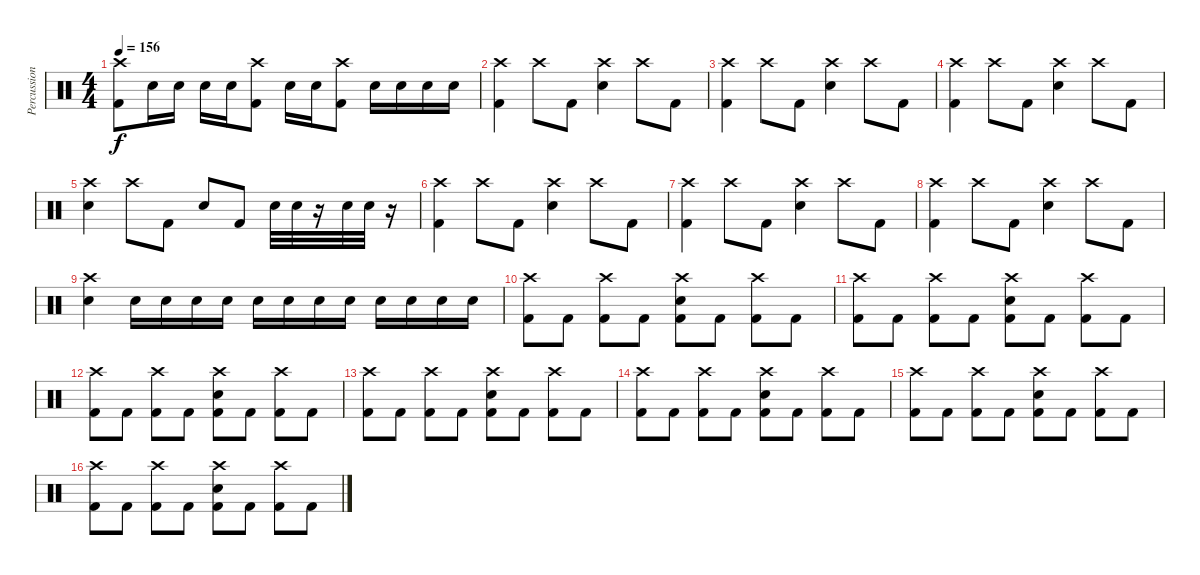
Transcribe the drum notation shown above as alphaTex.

\track ("Percussions" "Percussion") {instrument percussion}
\staff {score}
\articulation defaults
\ts (4 4)
\tempo 156
\clef neutral
\ks c
("Crash high (hit)" "Kick (hit) 2").8{dy f} "Electric Snare (hit)".16 "Electric Snare (hit)".16 "Electric Snare (hit)".16 "Electric Snare (hit)".16 ("Crash high (hit)" "Kick (hit) 2").8 "Electric Snare (hit)".16 "Electric Snare (hit)".16 ("Crash high (hit)" "Kick (hit) 2").8 "Electric Snare (hit)".16 "Electric Snare (hit)".16 "Electric Snare (hit)".16 "Electric Snare (hit)".16 |
("Crash high (hit)" "Kick (hit) 2").4 "Crash high (hit)".8 "Kick (hit) 2".8 ("Crash high (hit)" "Electric Snare (hit)").4 "Crash high (hit)".8 "Kick (hit) 2".8 |
("Crash high (hit)" "Kick (hit) 2").4 "Crash high (hit)".8 "Kick (hit) 2".8 ("Crash high (hit)" "Electric Snare (hit)").4 "Crash high (hit)".8 "Kick (hit) 2".8 |
("Crash high (hit)" "Kick (hit) 2").4 "Crash high (hit)".8 "Kick (hit) 2".8 ("Crash high (hit)" "Electric Snare (hit)").4 "Crash high (hit)".8 "Kick (hit) 2".8 |
("Crash high (hit)" "Electric Snare (hit)").4 "Crash high (hit)".8 "Kick (hit) 2".8 "Electric Snare (hit)".8 "Kick (hit) 2".8 "Electric Snare (hit)".32 "Electric Snare (hit)".32 r.16 "Electric Snare (hit)".32 "Electric Snare (hit)".32 r.16 |
("Crash high (hit)" "Kick (hit) 2").4 "Crash high (hit)".8 "Kick (hit) 2".8 ("Crash high (hit)" "Electric Snare (hit)").4 "Crash high (hit)".8 "Kick (hit) 2".8 |
("Crash high (hit)" "Kick (hit) 2").4 "Crash high (hit)".8 "Kick (hit) 2".8 ("Crash high (hit)" "Electric Snare (hit)").4 "Crash high (hit)".8 "Kick (hit) 2".8 |
("Crash high (hit)" "Kick (hit) 2").4 "Crash high (hit)".8 "Kick (hit) 2".8 ("Crash high (hit)" "Electric Snare (hit)").4 "Crash high (hit)".8 "Kick (hit) 2".8 |
("Crash high (hit)" "Electric Snare (hit)").4 "Electric Snare (hit)".16 "Electric Snare (hit)".16 "Electric Snare (hit)".16 "Electric Snare (hit)".16 "Electric Snare (hit)".16 "Electric Snare (hit)".16 "Electric Snare (hit)".16 "Electric Snare (hit)".16 "Electric Snare (hit)".16 "Electric Snare (hit)".16 "Electric Snare (hit)".16 "Electric Snare (hit)".16 |
("Crash high (hit)" "Kick (hit) 2").8 "Kick (hit) 2".8 ("Crash high (hit)" "Kick (hit) 2").8 "Kick (hit) 2".8 ("Crash high (hit)" "Electric Snare (hit)" "Kick (hit) 2").8 "Kick (hit) 2".8 ("Crash high (hit)" "Kick (hit) 2").8 "Kick (hit) 2".8 |
("Crash high (hit)" "Kick (hit) 2").8 "Kick (hit) 2".8 ("Crash high (hit)" "Kick (hit) 2").8 "Kick (hit) 2".8 ("Crash high (hit)" "Electric Snare (hit)" "Kick (hit) 2").8 "Kick (hit) 2".8 ("Crash high (hit)" "Kick (hit) 2").8 "Kick (hit) 2".8 |
("Crash high (hit)" "Kick (hit) 2").8 "Kick (hit) 2".8 ("Crash high (hit)" "Kick (hit) 2").8 "Kick (hit) 2".8 ("Crash high (hit)" "Electric Snare (hit)" "Kick (hit) 2").8 "Kick (hit) 2".8 ("Crash high (hit)" "Kick (hit) 2").8 "Kick (hit) 2".8 |
("Crash high (hit)" "Kick (hit) 2").8 "Kick (hit) 2".8 ("Crash high (hit)" "Kick (hit) 2").8 "Kick (hit) 2".8 ("Crash high (hit)" "Electric Snare (hit)" "Kick (hit) 2").8 "Kick (hit) 2".8 ("Crash high (hit)" "Kick (hit) 2").8 "Kick (hit) 2".8 |
("Crash high (hit)" "Kick (hit) 2").8 "Kick (hit) 2".8 ("Crash high (hit)" "Kick (hit) 2").8 "Kick (hit) 2".8 ("Crash high (hit)" "Electric Snare (hit)" "Kick (hit) 2").8 "Kick (hit) 2".8 ("Crash high (hit)" "Kick (hit) 2").8 "Kick (hit) 2".8 |
("Crash high (hit)" "Kick (hit) 2").8 "Kick (hit) 2".8 ("Crash high (hit)" "Kick (hit) 2").8 "Kick (hit) 2".8 ("Crash high (hit)" "Electric Snare (hit)" "Kick (hit) 2").8 "Kick (hit) 2".8 ("Crash high (hit)" "Kick (hit) 2").8 "Kick (hit) 2".8 |
("Crash high (hit)" "Kick (hit) 2").8 "Kick (hit) 2".8 ("Crash high (hit)" "Kick (hit) 2").8 "Kick (hit) 2".8 ("Crash high (hit)" "Electric Snare (hit)" "Kick (hit) 2").8 "Kick (hit) 2".8 ("Crash high (hit)" "Kick (hit) 2").8 "Kick (hit) 2".8
